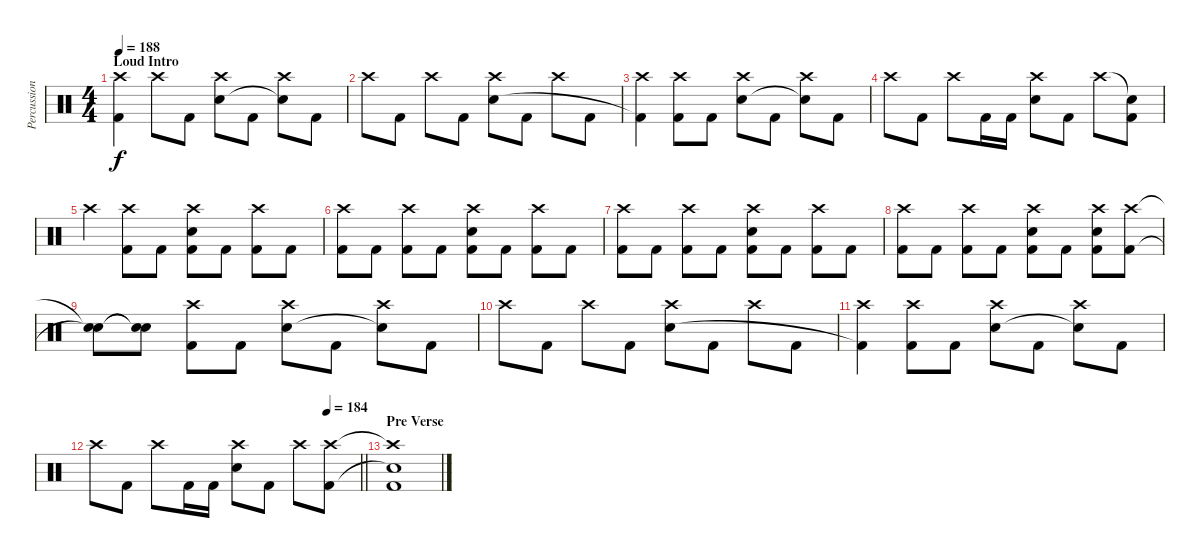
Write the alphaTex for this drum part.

\track ("Percussion" "Percussion") {instrument percussion}
\staff {score}
\articulation defaults
\ts (4 4)
\section ("" "Loud Intro")
\tempo 188
\clef neutral
\ks c
("Crash high (hit)" "Kick (hit) 2").4{dy f volume 16} "Crash high (hit)".8 "Kick (hit) 2".8 ("Crash high (hit)" "Electric Snare (hit)").8 "Kick (hit) 2".8 ("Crash high (hit)" "Snare (hit)"{t}).8 "Kick (hit) 2".8 |
"Crash high (hit)".8 "Kick (hit) 2".8 "Crash high (hit)".8 "Kick (hit) 2".8 ("Crash high (hit)" "Electric Snare (hit)").8 "Kick (hit) 2".8 "Crash high (hit)".8 "Kick (hit) 2".8 |
("Crash high (hit)" "Kick (hit) 2"{t}).4 ("Crash high (hit)" "Kick (hit) 2").8 "Kick (hit) 2".8 ("Crash high (hit)" "Electric Snare (hit)").8 "Kick (hit) 2".8 ("Crash high (hit)" "Snare (hit)"{t}).8 "Kick (hit) 2".8 |
"Crash high (hit)".8 "Kick (hit) 2".8 "Crash high (hit)".8 "Kick (hit) 2".16 "Kick (hit) 2".16 ("Crash high (hit)" "Electric Snare (hit)").8 "Kick (hit) 2".8 "Crash high (hit)".8 ("Snare (hit)"{t} "Kick (hit) 2").8 |
"Crash high (hit)".4 ("Crash high (hit)" "Kick (hit) 2").8 "Kick (hit) 2".8 ("Crash high (hit)" "Electric Snare (hit)" "Kick (hit) 2").8 "Kick (hit) 2".8 ("Crash high (hit)" "Kick (hit) 2").8 "Kick (hit) 2".8 |
("Crash high (hit)" "Kick (hit) 2").8 "Kick (hit) 2".8 ("Crash high (hit)" "Kick (hit) 2").8 "Kick (hit) 2".8 ("Crash high (hit)" "Electric Snare (hit)" "Kick (hit) 2").8 "Kick (hit) 2".8 ("Crash high (hit)" "Kick (hit) 2").8 "Kick (hit) 2".8 |
("Crash high (hit)" "Kick (hit) 2").8 "Kick (hit) 2".8 ("Crash high (hit)" "Kick (hit) 2").8 "Kick (hit) 2".8 ("Crash high (hit)" "Electric Snare (hit)" "Kick (hit) 2").8 "Kick (hit) 2".8 ("Crash high (hit)" "Kick (hit) 2").8 "Kick (hit) 2".8 |
("Crash high (hit)" "Kick (hit) 2").8 "Kick (hit) 2".8 ("Crash high (hit)" "Kick (hit) 2").8 "Kick (hit) 2".8 ("Crash high (hit)" "Electric Snare (hit)" "Kick (hit) 2").8 "Kick (hit) 2".8 ("Crash high (hit)" "Electric Snare (hit)" "Kick (hit) 2").8 ("Crash high (hit)" "Kick (hit) 2").8 |
("Snare (hit)"{t} "Snare (hit)"{t}).8 ("Snare (hit)"{t} "Snare (hit)"{t}).8 ("Crash high (hit)" "Kick (hit) 2").8 "Kick (hit) 2".8 ("Crash high (hit)" "Electric Snare (hit)").8 "Kick (hit) 2".8 ("Crash high (hit)" "Snare (hit)"{t}).8 "Kick (hit) 2".8 |
"Crash high (hit)".8 "Kick (hit) 2".8 "Crash high (hit)".8 "Kick (hit) 2".8 ("Crash high (hit)" "Electric Snare (hit)").8 "Kick (hit) 2".8 "Crash high (hit)".8 "Kick (hit) 2".8 |
("Crash high (hit)" "Kick (hit) 2"{t}).4 ("Crash high (hit)" "Kick (hit) 2").8 "Kick (hit) 2".8 ("Crash high (hit)" "Electric Snare (hit)").8 "Kick (hit) 2".8 ("Crash high (hit)" "Snare (hit)"{t}).8 "Kick (hit) 2".8 |
\tempo (184 0.875)
\barLineRight lightlight "Crash high (hit)".8 "Kick (hit) 2".8 "Crash high (hit)".8 "Kick (hit) 2".16 "Kick (hit) 2".16
("Crash high (hit)" "Electric Snare (hit)").8 "Kick (hit) 2".8 "Crash high (hit)".8 ("Crash high (hit)" "Kick (hit) 2").8 |
\section ("" "Pre Verse")
("Crash high (hit)"{t} "Snare (hit)"{t} "Kick (hit) 2").1
